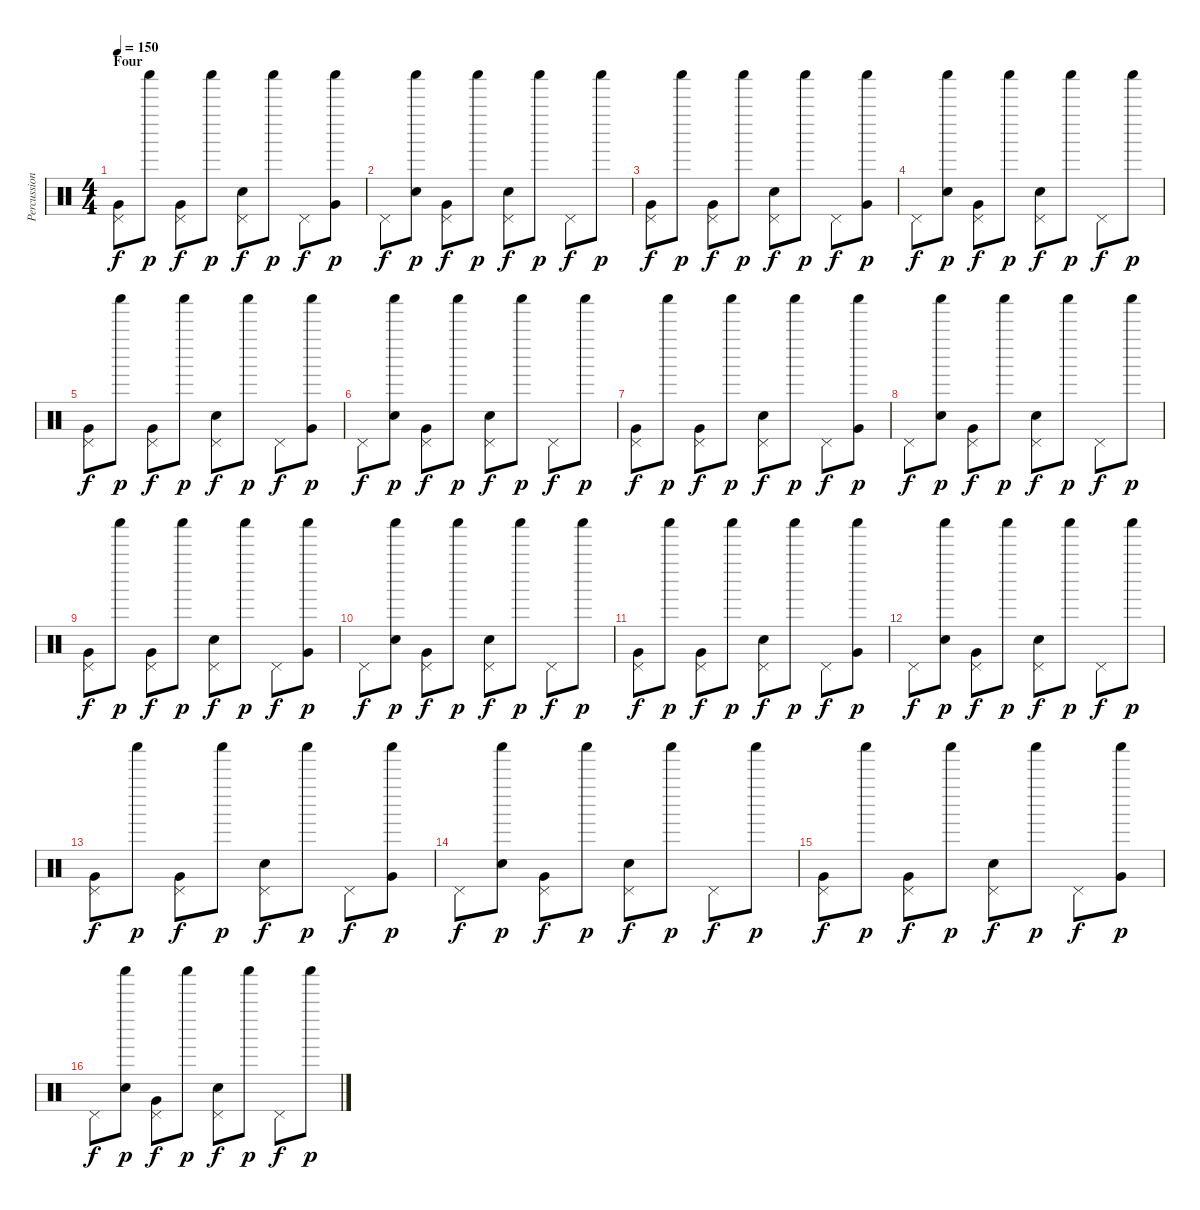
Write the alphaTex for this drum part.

\track ("Percussion" "Percussion") {instrument percussion}
\staff {score}
\articulation defaults
\ts (4 4)
\section ("" "Four")
\tempo 150
\clef neutral
\ks c
("Very Low Tom (hit)" "Pedal Hi-Hat (hit)").8{dy f} "Shaker (hit)".8{dy p} ("Very Low Tom (hit)" "Pedal Hi-Hat (hit)").8{dy f} "Shaker (hit)".8{dy p} ("Snare (hit) 2" "Pedal Hi-Hat (hit)").8{dy f} "Shaker (hit)".8{dy p} "Pedal Hi-Hat (hit)".8{dy f} ("Very Low Tom (hit)" "Shaker (hit)").8{dy p} |
"Pedal Hi-Hat (hit)".8{dy f} ("Snare (hit) 2" "Shaker (hit)").8{dy p} ("Very Low Tom (hit)" "Pedal Hi-Hat (hit)").8{dy f} "Shaker (hit)".8{dy p} ("Snare (hit) 2" "Pedal Hi-Hat (hit)").8{dy f} "Shaker (hit)".8{dy p} "Pedal Hi-Hat (hit)".8{dy f} "Shaker (hit)".8{dy p} |
("Very Low Tom (hit)" "Pedal Hi-Hat (hit)").8{dy f} "Shaker (hit)".8{dy p} ("Very Low Tom (hit)" "Pedal Hi-Hat (hit)").8{dy f} "Shaker (hit)".8{dy p} ("Snare (hit) 2" "Pedal Hi-Hat (hit)").8{dy f} "Shaker (hit)".8{dy p} "Pedal Hi-Hat (hit)".8{dy f} ("Very Low Tom (hit)" "Shaker (hit)").8{dy p} |
"Pedal Hi-Hat (hit)".8{dy f} ("Snare (hit) 2" "Shaker (hit)").8{dy p} ("Very Low Tom (hit)" "Pedal Hi-Hat (hit)").8{dy f} "Shaker (hit)".8{dy p} ("Snare (hit) 2" "Pedal Hi-Hat (hit)").8{dy f} "Shaker (hit)".8{dy p} "Pedal Hi-Hat (hit)".8{dy f} "Shaker (hit)".8{dy p} |
("Very Low Tom (hit)" "Pedal Hi-Hat (hit)").8{dy f} "Shaker (hit)".8{dy p} ("Very Low Tom (hit)" "Pedal Hi-Hat (hit)").8{dy f} "Shaker (hit)".8{dy p} ("Snare (hit) 2" "Pedal Hi-Hat (hit)").8{dy f} "Shaker (hit)".8{dy p} "Pedal Hi-Hat (hit)".8{dy f} ("Very Low Tom (hit)" "Shaker (hit)").8{dy p} |
"Pedal Hi-Hat (hit)".8{dy f} ("Snare (hit) 2" "Shaker (hit)").8{dy p} ("Very Low Tom (hit)" "Pedal Hi-Hat (hit)").8{dy f} "Shaker (hit)".8{dy p} ("Snare (hit) 2" "Pedal Hi-Hat (hit)").8{dy f} "Shaker (hit)".8{dy p} "Pedal Hi-Hat (hit)".8{dy f} "Shaker (hit)".8{dy p} |
("Very Low Tom (hit)" "Pedal Hi-Hat (hit)").8{dy f} "Shaker (hit)".8{dy p} ("Very Low Tom (hit)" "Pedal Hi-Hat (hit)").8{dy f} "Shaker (hit)".8{dy p} ("Snare (hit) 2" "Pedal Hi-Hat (hit)").8{dy f} "Shaker (hit)".8{dy p} "Pedal Hi-Hat (hit)".8{dy f} ("Very Low Tom (hit)" "Shaker (hit)").8{dy p} |
"Pedal Hi-Hat (hit)".8{dy f} ("Snare (hit) 2" "Shaker (hit)").8{dy p} ("Very Low Tom (hit)" "Pedal Hi-Hat (hit)").8{dy f} "Shaker (hit)".8{dy p} ("Snare (hit) 2" "Pedal Hi-Hat (hit)").8{dy f} "Shaker (hit)".8{dy p} "Pedal Hi-Hat (hit)".8{dy f} "Shaker (hit)".8{dy p} |
("Very Low Tom (hit)" "Pedal Hi-Hat (hit)").8{dy f} "Shaker (hit)".8{dy p} ("Very Low Tom (hit)" "Pedal Hi-Hat (hit)").8{dy f} "Shaker (hit)".8{dy p} ("Snare (hit) 2" "Pedal Hi-Hat (hit)").8{dy f} "Shaker (hit)".8{dy p} "Pedal Hi-Hat (hit)".8{dy f} ("Very Low Tom (hit)" "Shaker (hit)").8{dy p} |
"Pedal Hi-Hat (hit)".8{dy f} ("Snare (hit) 2" "Shaker (hit)").8{dy p} ("Very Low Tom (hit)" "Pedal Hi-Hat (hit)").8{dy f} "Shaker (hit)".8{dy p} ("Snare (hit) 2" "Pedal Hi-Hat (hit)").8{dy f} "Shaker (hit)".8{dy p} "Pedal Hi-Hat (hit)".8{dy f} "Shaker (hit)".8{dy p} |
("Very Low Tom (hit)" "Pedal Hi-Hat (hit)").8{dy f} "Shaker (hit)".8{dy p} ("Very Low Tom (hit)" "Pedal Hi-Hat (hit)").8{dy f} "Shaker (hit)".8{dy p} ("Snare (hit) 2" "Pedal Hi-Hat (hit)").8{dy f} "Shaker (hit)".8{dy p} "Pedal Hi-Hat (hit)".8{dy f} ("Very Low Tom (hit)" "Shaker (hit)").8{dy p} |
"Pedal Hi-Hat (hit)".8{dy f} ("Snare (hit) 2" "Shaker (hit)").8{dy p} ("Very Low Tom (hit)" "Pedal Hi-Hat (hit)").8{dy f} "Shaker (hit)".8{dy p} ("Snare (hit) 2" "Pedal Hi-Hat (hit)").8{dy f} "Shaker (hit)".8{dy p} "Pedal Hi-Hat (hit)".8{dy f} "Shaker (hit)".8{dy p} |
("Very Low Tom (hit)" "Pedal Hi-Hat (hit)").8{dy f} "Shaker (hit)".8{dy p} ("Very Low Tom (hit)" "Pedal Hi-Hat (hit)").8{dy f} "Shaker (hit)".8{dy p} ("Snare (hit) 2" "Pedal Hi-Hat (hit)").8{dy f} "Shaker (hit)".8{dy p} "Pedal Hi-Hat (hit)".8{dy f} ("Very Low Tom (hit)" "Shaker (hit)").8{dy p} |
"Pedal Hi-Hat (hit)".8{dy f} ("Snare (hit) 2" "Shaker (hit)").8{dy p} ("Very Low Tom (hit)" "Pedal Hi-Hat (hit)").8{dy f} "Shaker (hit)".8{dy p} ("Snare (hit) 2" "Pedal Hi-Hat (hit)").8{dy f} "Shaker (hit)".8{dy p} "Pedal Hi-Hat (hit)".8{dy f} "Shaker (hit)".8{dy p} |
("Very Low Tom (hit)" "Pedal Hi-Hat (hit)").8{dy f} "Shaker (hit)".8{dy p} ("Very Low Tom (hit)" "Pedal Hi-Hat (hit)").8{dy f} "Shaker (hit)".8{dy p} ("Snare (hit) 2" "Pedal Hi-Hat (hit)").8{dy f} "Shaker (hit)".8{dy p} "Pedal Hi-Hat (hit)".8{dy f} ("Very Low Tom (hit)" "Shaker (hit)").8{dy p} |
"Pedal Hi-Hat (hit)".8{dy f} ("Snare (hit) 2" "Shaker (hit)").8{dy p} ("Very Low Tom (hit)" "Pedal Hi-Hat (hit)").8{dy f} "Shaker (hit)".8{dy p} ("Snare (hit) 2" "Pedal Hi-Hat (hit)").8{dy f} "Shaker (hit)".8{dy p} "Pedal Hi-Hat (hit)".8{dy f} "Shaker (hit)".8{dy p}
